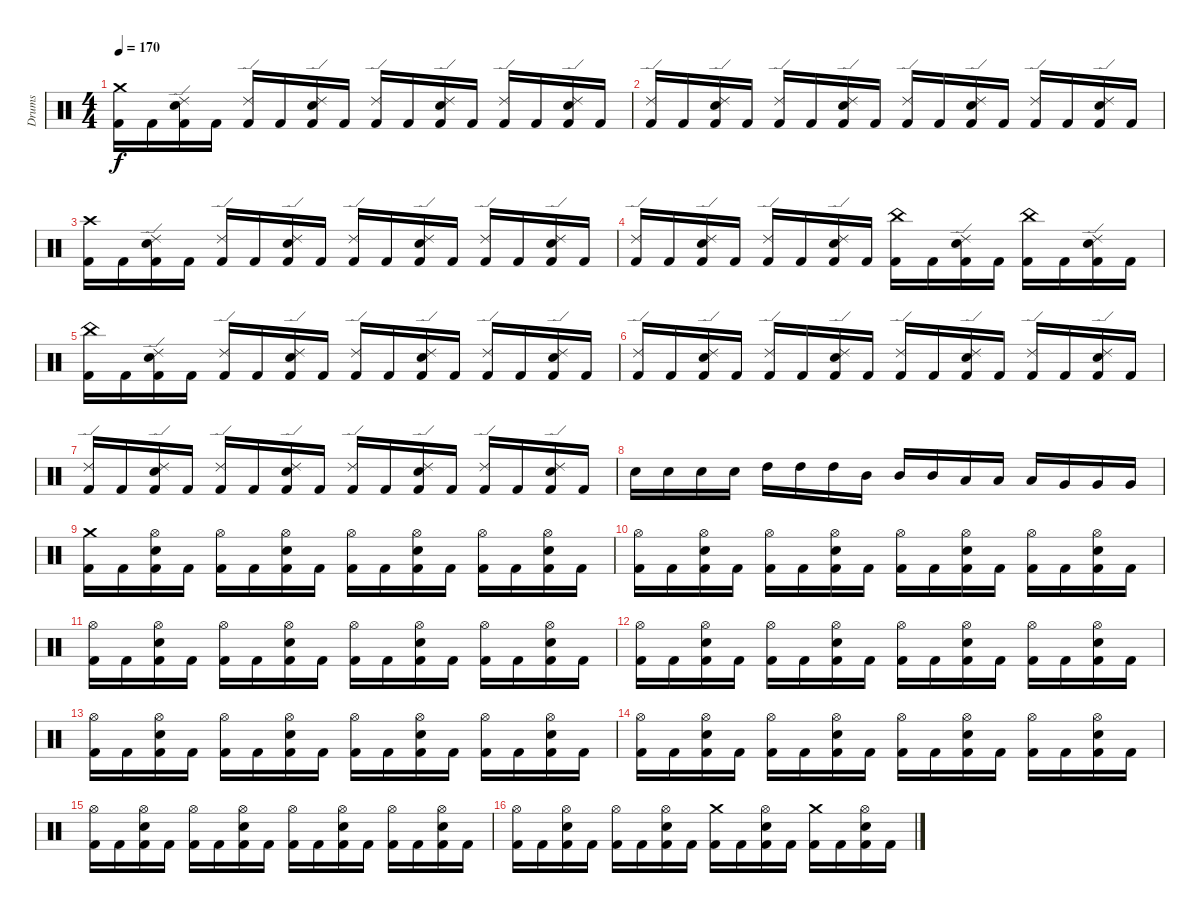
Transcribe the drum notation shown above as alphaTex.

\track ("Drums" "Drums") {instrument percussion}
\staff {score}
\articulation defaults
\ts (4 4)
\tempo 170
\clef neutral
\ks c
("Crash medium (hit)" "Kick (hit) 2").16{dy f} "Kick (hit) 2".16 ("Ride (edge) 2" "Snare (hit) 2" "Kick (hit) 2").16 "Kick (hit) 2".16 ("Ride (edge) 2" "Kick (hit) 2").16 "Kick (hit) 2".16 ("Ride (edge) 2" "Snare (hit) 2" "Kick (hit) 2").16 "Kick (hit) 2".16 ("Ride (edge) 2" "Kick (hit) 2").16 "Kick (hit) 2".16 ("Ride (edge) 2" "Snare (hit) 2" "Kick (hit) 2").16 "Kick (hit) 2".16 ("Ride (edge) 2" "Kick (hit) 2").16 "Kick (hit) 2".16 ("Ride (edge) 2" "Snare (hit) 2" "Kick (hit) 2").16 "Kick (hit) 2".16 |
("Ride (edge) 2" "Kick (hit) 2").16 "Kick (hit) 2".16 ("Ride (edge) 2" "Snare (hit) 2" "Kick (hit) 2").16 "Kick (hit) 2".16 ("Ride (edge) 2" "Kick (hit) 2").16 "Kick (hit) 2".16 ("Ride (edge) 2" "Snare (hit) 2" "Kick (hit) 2").16 "Kick (hit) 2".16 ("Ride (edge) 2" "Kick (hit) 2").16 "Kick (hit) 2".16 ("Ride (edge) 2" "Snare (hit) 2" "Kick (hit) 2").16 "Kick (hit) 2".16 ("Ride (edge) 2" "Kick (hit) 2").16 "Kick (hit) 2".16 ("Ride (edge) 2" "Snare (hit) 2" "Kick (hit) 2").16 "Kick (hit) 2".16 |
("Crash high (hit)" "Kick (hit) 2").16 "Kick (hit) 2".16 ("Ride (edge) 2" "Snare (hit) 2" "Kick (hit) 2").16 "Kick (hit) 2".16 ("Ride (edge) 2" "Kick (hit) 2").16 "Kick (hit) 2".16 ("Ride (edge) 2" "Snare (hit) 2" "Kick (hit) 2").16 "Kick (hit) 2".16 ("Ride (edge) 2" "Kick (hit) 2").16 "Kick (hit) 2".16 ("Ride (edge) 2" "Snare (hit) 2" "Kick (hit) 2").16 "Kick (hit) 2".16 ("Ride (edge) 2" "Kick (hit) 2").16 "Kick (hit) 2".16 ("Ride (edge) 2" "Snare (hit) 2" "Kick (hit) 2").16 "Kick (hit) 2".16 |
("Ride (edge) 2" "Kick (hit) 2").16 "Kick (hit) 2".16 ("Ride (edge) 2" "Snare (hit) 2" "Kick (hit) 2").16 "Kick (hit) 2".16 ("Ride (edge) 2" "Kick (hit) 2").16 "Kick (hit) 2".16 ("Ride (edge) 2" "Snare (hit) 2" "Kick (hit) 2").16 "Kick (hit) 2".16 ("China (hit)" "Kick (hit) 2").16 "Kick (hit) 2".16 ("Ride (edge) 2" "Snare (hit) 2" "Kick (hit) 2").16 "Kick (hit) 2".16 ("China (hit)" "Kick (hit) 2").16 "Kick (hit) 2".16 ("Ride (edge) 2" "Snare (hit) 2" "Kick (hit) 2").16 "Kick (hit) 2".16 |
("China (hit)" "Kick (hit) 2").16 "Kick (hit) 2".16 ("Ride (edge) 2" "Snare (hit) 2" "Kick (hit) 2").16 "Kick (hit) 2".16 ("Ride (edge) 2" "Kick (hit) 2").16 "Kick (hit) 2".16 ("Ride (edge) 2" "Snare (hit) 2" "Kick (hit) 2").16 "Kick (hit) 2".16 ("Ride (edge) 2" "Kick (hit) 2").16 "Kick (hit) 2".16 ("Ride (edge) 2" "Snare (hit) 2" "Kick (hit) 2").16 "Kick (hit) 2".16 ("Ride (edge) 2" "Kick (hit) 2").16 "Kick (hit) 2".16 ("Ride (edge) 2" "Snare (hit) 2" "Kick (hit) 2").16 "Kick (hit) 2".16 |
("Ride (edge) 2" "Kick (hit) 2").16 "Kick (hit) 2".16 ("Ride (edge) 2" "Snare (hit) 2" "Kick (hit) 2").16 "Kick (hit) 2".16 ("Ride (edge) 2" "Kick (hit) 2").16 "Kick (hit) 2".16 ("Ride (edge) 2" "Snare (hit) 2" "Kick (hit) 2").16 "Kick (hit) 2".16 ("Ride (edge) 2" "Kick (hit) 2").16 "Kick (hit) 2".16 ("Ride (edge) 2" "Snare (hit) 2" "Kick (hit) 2").16 "Kick (hit) 2".16 ("Ride (edge) 2" "Kick (hit) 2").16 "Kick (hit) 2".16 ("Ride (edge) 2" "Snare (hit) 2" "Kick (hit) 2").16 "Kick (hit) 2".16 |
("Ride (edge) 2" "Kick (hit) 2").16 "Kick (hit) 2".16 ("Ride (edge) 2" "Snare (hit) 2" "Kick (hit) 2").16 "Kick (hit) 2".16 ("Ride (edge) 2" "Kick (hit) 2").16 "Kick (hit) 2".16 ("Ride (edge) 2" "Snare (hit) 2" "Kick (hit) 2").16 "Kick (hit) 2".16 ("Ride (edge) 2" "Kick (hit) 2").16 "Kick (hit) 2".16 ("Ride (edge) 2" "Snare (hit) 2" "Kick (hit) 2").16 "Kick (hit) 2".16 ("Ride (edge) 2" "Kick (hit) 2").16 "Kick (hit) 2".16 ("Ride (edge) 2" "Snare (hit) 2" "Kick (hit) 2").16 "Kick (hit) 2".16 |
"Snare (hit) 2".16 "Snare (hit) 2".16 "Snare (hit) 2".16 "Snare (hit) 2".16 "High Tom (hit)".16 "High Tom (hit)".16 "High Tom (hit)".16 "Mid Tom (hit)".16 "Mid Tom (hit)".16 "Mid Tom (hit)".16 "Low Tom (hit)".16 "Low Tom (hit)".16 "Low Tom (hit)".16 "Very Low Tom (hit)".16 "Very Low Tom (hit)".16 "Very Low Tom (hit)".16 |
("Crash medium (hit)" "Kick (hit) 2").16 "Kick (hit) 2".16 ("Hi-Hat (open)" "Snare (hit) 2" "Kick (hit) 2").16 "Kick (hit) 2".16 ("Hi-Hat (open)" "Kick (hit) 2").16 "Kick (hit) 2".16 ("Hi-Hat (open)" "Snare (hit) 2" "Kick (hit) 2").16 "Kick (hit) 2".16 ("Hi-Hat (open)" "Kick (hit) 2").16 "Kick (hit) 2".16 ("Hi-Hat (open)" "Snare (hit) 2" "Kick (hit) 2").16 "Kick (hit) 2".16 ("Hi-Hat (open)" "Kick (hit) 2").16 "Kick (hit) 2".16 ("Hi-Hat (open)" "Snare (hit) 2" "Kick (hit) 2").16 "Kick (hit) 2".16 |
("Hi-Hat (open)" "Kick (hit) 2").16 "Kick (hit) 2".16 ("Hi-Hat (open)" "Snare (hit) 2" "Kick (hit) 2").16 "Kick (hit) 2".16 ("Hi-Hat (open)" "Kick (hit) 2").16 "Kick (hit) 2".16 ("Hi-Hat (open)" "Snare (hit) 2" "Kick (hit) 2").16 "Kick (hit) 2".16 ("Hi-Hat (open)" "Kick (hit) 2").16 "Kick (hit) 2".16 ("Hi-Hat (open)" "Snare (hit) 2" "Kick (hit) 2").16 "Kick (hit) 2".16 ("Hi-Hat (open)" "Kick (hit) 2").16 "Kick (hit) 2".16 ("Hi-Hat (open)" "Snare (hit) 2" "Kick (hit) 2").16 "Kick (hit) 2".16 |
("Hi-Hat (open)" "Kick (hit) 2").16 "Kick (hit) 2".16 ("Hi-Hat (open)" "Snare (hit) 2" "Kick (hit) 2").16 "Kick (hit) 2".16 ("Hi-Hat (open)" "Kick (hit) 2").16 "Kick (hit) 2".16 ("Hi-Hat (open)" "Snare (hit) 2" "Kick (hit) 2").16 "Kick (hit) 2".16 ("Hi-Hat (open)" "Kick (hit) 2").16 "Kick (hit) 2".16 ("Hi-Hat (open)" "Snare (hit) 2" "Kick (hit) 2").16 "Kick (hit) 2".16 ("Hi-Hat (open)" "Kick (hit) 2").16 "Kick (hit) 2".16 ("Hi-Hat (open)" "Snare (hit) 2" "Kick (hit) 2").16 "Kick (hit) 2".16 |
("Hi-Hat (open)" "Kick (hit) 2").16 "Kick (hit) 2".16 ("Hi-Hat (open)" "Snare (hit) 2" "Kick (hit) 2").16 "Kick (hit) 2".16 ("Hi-Hat (open)" "Kick (hit) 2").16 "Kick (hit) 2".16 ("Hi-Hat (open)" "Snare (hit) 2" "Kick (hit) 2").16 "Kick (hit) 2".16 ("Hi-Hat (open)" "Kick (hit) 2").16 "Kick (hit) 2".16 ("Hi-Hat (open)" "Snare (hit) 2" "Kick (hit) 2").16 "Kick (hit) 2".16 ("Hi-Hat (open)" "Kick (hit) 2").16 "Kick (hit) 2".16 ("Hi-Hat (open)" "Snare (hit) 2" "Kick (hit) 2").16 "Kick (hit) 2".16 |
("Hi-Hat (open)" "Kick (hit) 2").16 "Kick (hit) 2".16 ("Hi-Hat (open)" "Snare (hit) 2" "Kick (hit) 2").16 "Kick (hit) 2".16 ("Hi-Hat (open)" "Kick (hit) 2").16 "Kick (hit) 2".16 ("Hi-Hat (open)" "Snare (hit) 2" "Kick (hit) 2").16 "Kick (hit) 2".16 ("Hi-Hat (open)" "Kick (hit) 2").16 "Kick (hit) 2".16 ("Hi-Hat (open)" "Snare (hit) 2" "Kick (hit) 2").16 "Kick (hit) 2".16 ("Hi-Hat (open)" "Kick (hit) 2").16 "Kick (hit) 2".16 ("Hi-Hat (open)" "Snare (hit) 2" "Kick (hit) 2").16 "Kick (hit) 2".16 |
("Hi-Hat (open)" "Kick (hit) 2").16 "Kick (hit) 2".16 ("Hi-Hat (open)" "Snare (hit) 2" "Kick (hit) 2").16 "Kick (hit) 2".16 ("Hi-Hat (open)" "Kick (hit) 2").16 "Kick (hit) 2".16 ("Hi-Hat (open)" "Snare (hit) 2" "Kick (hit) 2").16 "Kick (hit) 2".16 ("Hi-Hat (open)" "Kick (hit) 2").16 "Kick (hit) 2".16 ("Hi-Hat (open)" "Snare (hit) 2" "Kick (hit) 2").16 "Kick (hit) 2".16 ("Hi-Hat (open)" "Kick (hit) 2").16 "Kick (hit) 2".16 ("Hi-Hat (open)" "Snare (hit) 2" "Kick (hit) 2").16 "Kick (hit) 2".16 |
("Hi-Hat (open)" "Kick (hit) 2").16 "Kick (hit) 2".16 ("Hi-Hat (open)" "Snare (hit) 2" "Kick (hit) 2").16 "Kick (hit) 2".16 ("Hi-Hat (open)" "Kick (hit) 2").16 "Kick (hit) 2".16 ("Hi-Hat (open)" "Snare (hit) 2" "Kick (hit) 2").16 "Kick (hit) 2".16 ("Hi-Hat (open)" "Kick (hit) 2").16 "Kick (hit) 2".16 ("Hi-Hat (open)" "Snare (hit) 2" "Kick (hit) 2").16 "Kick (hit) 2".16 ("Hi-Hat (open)" "Kick (hit) 2").16 "Kick (hit) 2".16 ("Hi-Hat (open)" "Snare (hit) 2" "Kick (hit) 2").16 "Kick (hit) 2".16 |
("Hi-Hat (open)" "Kick (hit) 2").16 "Kick (hit) 2".16 ("Hi-Hat (open)" "Snare (hit) 2" "Kick (hit) 2").16 "Kick (hit) 2".16 ("Hi-Hat (open)" "Kick (hit) 2").16 "Kick (hit) 2".16 ("Hi-Hat (open)" "Snare (hit) 2" "Kick (hit) 2").16 "Kick (hit) 2".16 ("Crash medium (hit)" "Kick (hit) 2").16 "Kick (hit) 2".16 ("Hi-Hat (open)" "Snare (hit) 2" "Kick (hit) 2").16 "Kick (hit) 2".16 ("Crash medium (hit)" "Kick (hit) 2").16 "Kick (hit) 2".16 ("Hi-Hat (open)" "Snare (hit) 2" "Kick (hit) 2").16 "Kick (hit) 2".16
